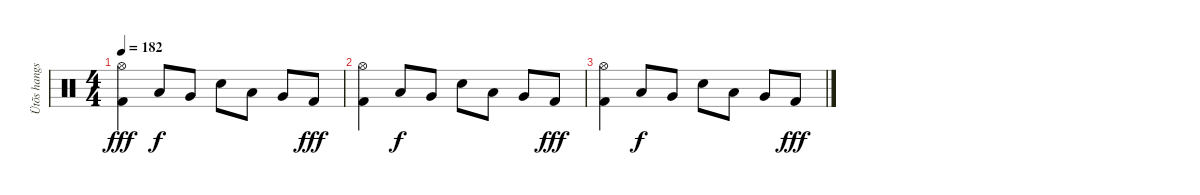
\track ("Ütõs hangszer" "Ütõs hangs") {instrument percussion}
\staff {score}
\articulation defaults
\ts (4 4)
\tempo 182
\clef neutral
\ks c
("Hi-Hat (open)" "Kick (hit) 2").4{dy fff} "Low Tom (hit)".8{dy f} "Very Low Tom (hit)".8 "Electric Snare (hit)".8 "Low Tom (hit)".8 "Very Low Tom (hit)".8 "Kick (hit) 2".8{dy fff} |
("Hi-Hat (open)" "Kick (hit) 2").4 "Low Tom (hit)".8{dy f} "Very Low Tom (hit)".8 "Electric Snare (hit)".8 "Low Tom (hit)".8 "Very Low Tom (hit)".8 "Kick (hit) 2".8{dy fff} |
("Hi-Hat (open)" "Kick (hit) 2").4 "Low Tom (hit)".8{dy f} "Very Low Tom (hit)".8 "Electric Snare (hit)".8 "Low Tom (hit)".8 "Very Low Tom (hit)".8 "Kick (hit) 2".8{dy fff}
